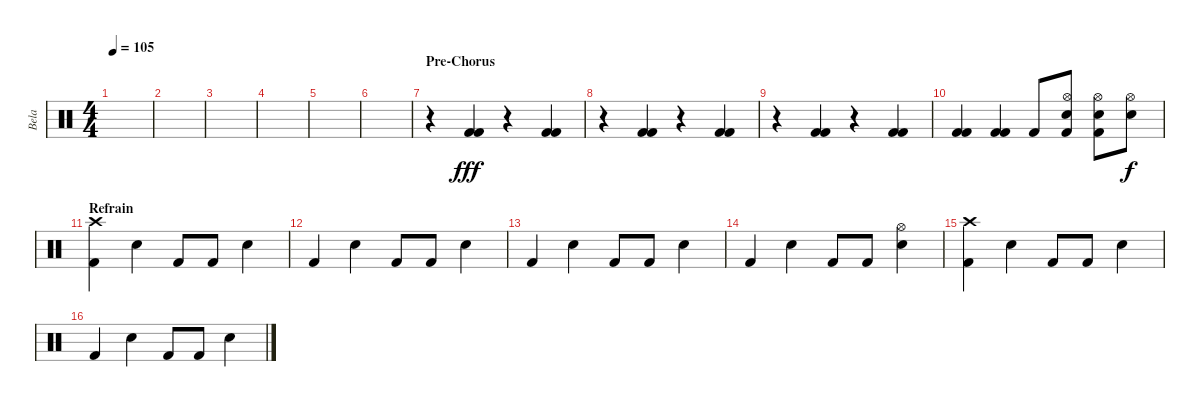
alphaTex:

\track ("Bela" "Bela") {instrument percussion}
\staff {score}
\articulation defaults
\ts (4 4)
\tempo 105
\clef neutral
\ks c
|
|
|
|
|
|
\section ("" "Pre-Chorus")
r.4 ("Kick (hit) 2" "Kick (hit) 2").4{dy fff} r.4 ("Kick (hit) 2" "Kick (hit) 2").4 |
r.4 ("Kick (hit) 2" "Kick (hit) 2").4 r.4 ("Kick (hit) 2" "Kick (hit) 2").4 |
r.4 ("Kick (hit) 2" "Kick (hit) 2").4 r.4 ("Kick (hit) 2" "Kick (hit) 2").4 |
("Kick (hit) 2" "Kick (hit) 2").4 ("Kick (hit) 2" "Kick (hit) 2").4 "Kick (hit) 2".8 ("Hi-Hat (open)" "Snare (hit) 2" "Kick (hit) 2").8 ("Hi-Hat (open)" "Snare (hit) 2" "Kick (hit) 2").8 ("Hi-Hat (open)" "Snare (hit) 2").8{dy f} |
\section ("" "Refrain")
("Crash high (hit)" "Kick (hit) 2").4 "Snare (hit) 2".4 "Kick (hit) 2".8 "Kick (hit) 2".8 "Snare (hit) 2".4 |
"Kick (hit) 2".4 "Snare (hit) 2".4 "Kick (hit) 2".8 "Kick (hit) 2".8 "Snare (hit) 2".4 |
"Kick (hit) 2".4 "Snare (hit) 2".4 "Kick (hit) 2".8 "Kick (hit) 2".8 "Snare (hit) 2".4 |
"Kick (hit) 2".4 "Snare (hit) 2".4 "Kick (hit) 2".8 "Kick (hit) 2".8 ("Hi-Hat (open)" "Snare (hit) 2").4 |
("Crash high (hit)" "Kick (hit) 2").4 "Snare (hit) 2".4 "Kick (hit) 2".8 "Kick (hit) 2".8 "Snare (hit) 2".4 |
"Kick (hit) 2".4 "Snare (hit) 2".4 "Kick (hit) 2".8 "Kick (hit) 2".8 "Snare (hit) 2".4
